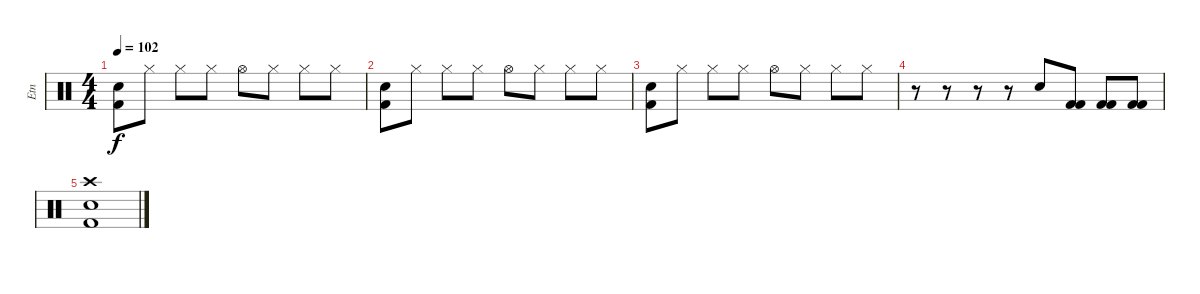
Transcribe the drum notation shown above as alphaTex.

\track ("Etn" "Etn") {instrument percussion}
\staff {score}
\articulation defaults
\ts (4 4)
\tempo 102
\clef neutral
\ks c
("Snare (hit) 2" "Kick (hit) 2").8{dy f} "Hi-Hat (closed)".8 "Hi-Hat (closed)".8 "Hi-Hat (closed)".8 "Hi-Hat (open)".8 "Hi-Hat (closed)".8 "Hi-Hat (closed)".8 "Hi-Hat (closed)".8 |
("Snare (hit) 2" "Kick (hit) 2").8 "Hi-Hat (closed)".8 "Hi-Hat (closed)".8 "Hi-Hat (closed)".8 "Hi-Hat (open)".8 "Hi-Hat (closed)".8 "Hi-Hat (closed)".8 "Hi-Hat (closed)".8 |
("Snare (hit) 2" "Kick (hit) 2").8 "Hi-Hat (closed)".8 "Hi-Hat (closed)".8 "Hi-Hat (closed)".8 "Hi-Hat (open)".8 "Hi-Hat (closed)".8 "Hi-Hat (closed)".8 "Hi-Hat (closed)".8 |
r.8 r.8 r.8 r.8 "Snare (hit) 2".8 ("Kick (hit) 2" "Kick (hit) 2").8 ("Kick (hit) 2" "Kick (hit) 2").8 ("Kick (hit) 2" "Kick (hit) 2").8 |
("Crash high (hit)" "Snare (hit) 2" "Kick (hit) 2").1
